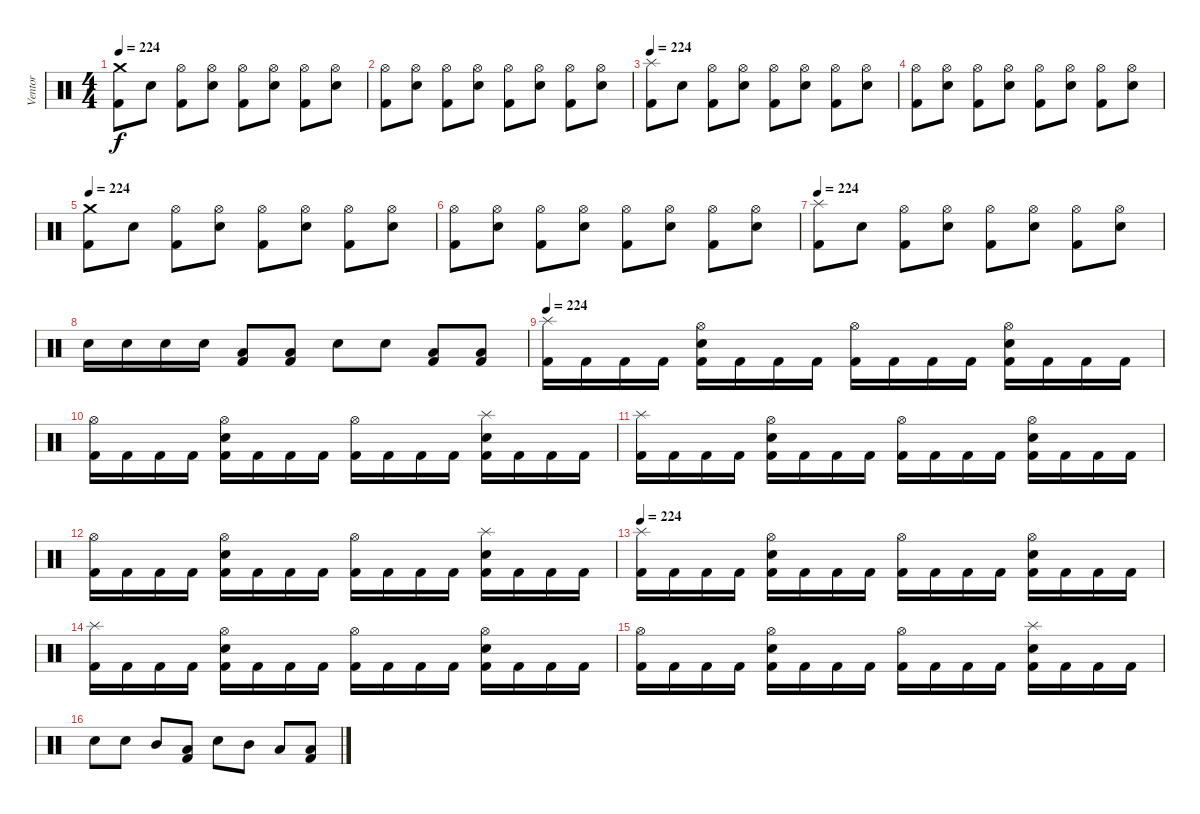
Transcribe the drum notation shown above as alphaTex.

\track ("Ventor" "Ventor") {instrument percussion}
\staff {score}
\articulation defaults
\ts (4 4)
\tempo 224
\clef neutral
\ks c
("Crash medium (hit)" "Kick (hit) 2").8{dy f} "Electric Snare (hit)".8 ("Hi-Hat (open)" "Kick (hit) 2").8 ("Hi-Hat (open)" "Electric Snare (hit)").8 ("Hi-Hat (open)" "Kick (hit) 2").8 ("Hi-Hat (open)" "Electric Snare (hit)").8 ("Hi-Hat (open)" "Kick (hit) 2").8 ("Hi-Hat (open)" "Electric Snare (hit)").8 |
("Hi-Hat (open)" "Kick (hit) 2").8 ("Hi-Hat (open)" "Electric Snare (hit)").8 ("Hi-Hat (open)" "Kick (hit) 2").8 ("Hi-Hat (open)" "Electric Snare (hit)").8 ("Hi-Hat (open)" "Kick (hit) 2").8 ("Hi-Hat (open)" "Electric Snare (hit)").8 ("Hi-Hat (open)" "Kick (hit) 2").8 ("Hi-Hat (open)" "Electric Snare (hit)").8 |
\tempo 224
("Splash (hit)" "Kick (hit) 2").8 "Electric Snare (hit)".8 ("Hi-Hat (open)" "Kick (hit) 2").8 ("Hi-Hat (open)" "Electric Snare (hit)").8 ("Hi-Hat (open)" "Kick (hit) 2").8 ("Hi-Hat (open)" "Electric Snare (hit)").8 ("Hi-Hat (open)" "Kick (hit) 2").8 ("Hi-Hat (open)" "Electric Snare (hit)").8 |
("Hi-Hat (open)" "Kick (hit) 2").8 ("Hi-Hat (open)" "Electric Snare (hit)").8 ("Hi-Hat (open)" "Kick (hit) 2").8 ("Hi-Hat (open)" "Electric Snare (hit)").8 ("Hi-Hat (open)" "Kick (hit) 2").8 ("Hi-Hat (open)" "Electric Snare (hit)").8 ("Hi-Hat (open)" "Kick (hit) 2").8 ("Hi-Hat (open)" "Electric Snare (hit)").8 |
\tempo 224
("Crash medium (hit)" "Kick (hit) 2").8 "Electric Snare (hit)".8 ("Hi-Hat (open)" "Kick (hit) 2").8 ("Hi-Hat (open)" "Electric Snare (hit)").8 ("Hi-Hat (open)" "Kick (hit) 2").8 ("Hi-Hat (open)" "Electric Snare (hit)").8 ("Hi-Hat (open)" "Kick (hit) 2").8 ("Hi-Hat (open)" "Electric Snare (hit)").8 |
("Hi-Hat (open)" "Kick (hit) 2").8 ("Hi-Hat (open)" "Electric Snare (hit)").8 ("Hi-Hat (open)" "Kick (hit) 2").8 ("Hi-Hat (open)" "Electric Snare (hit)").8 ("Hi-Hat (open)" "Kick (hit) 2").8 ("Hi-Hat (open)" "Electric Snare (hit)").8 ("Hi-Hat (open)" "Kick (hit) 2").8 ("Hi-Hat (open)" "Electric Snare (hit)").8 |
\tempo 224
("Splash (hit)" "Kick (hit) 2").8 "Electric Snare (hit)".8 ("Hi-Hat (open)" "Kick (hit) 2").8 ("Hi-Hat (open)" "Electric Snare (hit)").8 ("Hi-Hat (open)" "Kick (hit) 2").8 ("Hi-Hat (open)" "Electric Snare (hit)").8 ("Hi-Hat (open)" "Kick (hit) 2").8 ("Hi-Hat (open)" "Electric Snare (hit)").8 |
"Electric Snare (hit)".16 "Electric Snare (hit)".16 "Electric Snare (hit)".16 "Electric Snare (hit)".16 ("Low Floor Tom (hit)" "Kick (hit) 2").8 ("Low Floor Tom (hit)" "Kick (hit) 2").8 "Electric Snare (hit)".8 "Electric Snare (hit)".8 ("Kick (hit) 2" "Low Floor Tom (hit)").8 ("Kick (hit) 2" "Low Floor Tom (hit)").8 |
\tempo 224
("Splash (hit)" "Kick (hit) 2").16 "Kick (hit) 2".16 "Kick (hit) 2".16 "Kick (hit) 2".16 ("Hi-Hat (open)" "Electric Snare (hit)" "Kick (hit) 2").16 "Kick (hit) 2".16 "Kick (hit) 2".16 "Kick (hit) 2".16 ("Hi-Hat (open)" "Kick (hit) 2").16 "Kick (hit) 2".16 "Kick (hit) 2".16 "Kick (hit) 2".16 ("Hi-Hat (open)" "Electric Snare (hit)" "Kick (hit) 2").16 "Kick (hit) 2".16 "Kick (hit) 2".16 "Kick (hit) 2".16 |
("Hi-Hat (open)" "Kick (hit) 2").16 "Kick (hit) 2".16 "Kick (hit) 2".16 "Kick (hit) 2".16 ("Hi-Hat (open)" "Electric Snare (hit)" "Kick (hit) 2").16 "Kick (hit) 2".16 "Kick (hit) 2".16 "Kick (hit) 2".16 ("Hi-Hat (open)" "Kick (hit) 2").16 "Kick (hit) 2".16 "Kick (hit) 2".16 "Kick (hit) 2".16 ("Splash (hit)" "Electric Snare (hit)" "Kick (hit) 2").16 "Kick (hit) 2".16 "Kick (hit) 2".16 "Kick (hit) 2".16 |
("Splash (hit)" "Kick (hit) 2").16 "Kick (hit) 2".16 "Kick (hit) 2".16 "Kick (hit) 2".16 ("Hi-Hat (open)" "Electric Snare (hit)" "Kick (hit) 2").16 "Kick (hit) 2".16 "Kick (hit) 2".16 "Kick (hit) 2".16 ("Hi-Hat (open)" "Kick (hit) 2").16 "Kick (hit) 2".16 "Kick (hit) 2".16 "Kick (hit) 2".16 ("Hi-Hat (open)" "Electric Snare (hit)" "Kick (hit) 2").16 "Kick (hit) 2".16 "Kick (hit) 2".16 "Kick (hit) 2".16 |
("Hi-Hat (open)" "Kick (hit) 2").16 "Kick (hit) 2".16 "Kick (hit) 2".16 "Kick (hit) 2".16 ("Hi-Hat (open)" "Electric Snare (hit)" "Kick (hit) 2").16 "Kick (hit) 2".16 "Kick (hit) 2".16 "Kick (hit) 2".16 ("Hi-Hat (open)" "Kick (hit) 2").16 "Kick (hit) 2".16 "Kick (hit) 2".16 "Kick (hit) 2".16 ("Splash (hit)" "Electric Snare (hit)" "Kick (hit) 2").16 "Kick (hit) 2".16 "Kick (hit) 2".16 "Kick (hit) 2".16 |
\tempo 224
("Splash (hit)" "Kick (hit) 2").16 "Kick (hit) 2".16 "Kick (hit) 2".16 "Kick (hit) 2".16 ("Hi-Hat (open)" "Electric Snare (hit)" "Kick (hit) 2").16 "Kick (hit) 2".16 "Kick (hit) 2".16 "Kick (hit) 2".16 ("Hi-Hat (open)" "Kick (hit) 2").16 "Kick (hit) 2".16 "Kick (hit) 2".16 "Kick (hit) 2".16 ("Hi-Hat (open)" "Electric Snare (hit)" "Kick (hit) 2").16 "Kick (hit) 2".16 "Kick (hit) 2".16 "Kick (hit) 2".16 |
("Splash (hit)" "Kick (hit) 2").16 "Kick (hit) 2".16 "Kick (hit) 2".16 "Kick (hit) 2".16 ("Hi-Hat (open)" "Electric Snare (hit)" "Kick (hit) 2").16 "Kick (hit) 2".16 "Kick (hit) 2".16 "Kick (hit) 2".16 ("Hi-Hat (open)" "Kick (hit) 2").16 "Kick (hit) 2".16 "Kick (hit) 2".16 "Kick (hit) 2".16 ("Hi-Hat (open)" "Electric Snare (hit)" "Kick (hit) 2").16 "Kick (hit) 2".16 "Kick (hit) 2".16 "Kick (hit) 2".16 |
("Hi-Hat (open)" "Kick (hit) 2").16 "Kick (hit) 2".16 "Kick (hit) 2".16 "Kick (hit) 2".16 ("Hi-Hat (open)" "Electric Snare (hit)" "Kick (hit) 2").16 "Kick (hit) 2".16 "Kick (hit) 2".16 "Kick (hit) 2".16 ("Hi-Hat (open)" "Kick (hit) 2").16 "Kick (hit) 2".16 "Kick (hit) 2".16 "Kick (hit) 2".16 ("Splash (hit)" "Electric Snare (hit)" "Kick (hit) 2").16 "Kick (hit) 2".16 "Kick (hit) 2".16 "Kick (hit) 2".16 |
"Electric Snare (hit)".8 "Electric Snare (hit)".8 "Mid Tom (hit)".8 ("Low Tom (hit)" "Kick (hit) 2").8 "Electric Snare (hit)".8 "Mid Tom (hit)".8 "Low Tom (hit)".8 ("Low Floor Tom (hit)" "Kick (hit) 2").8
